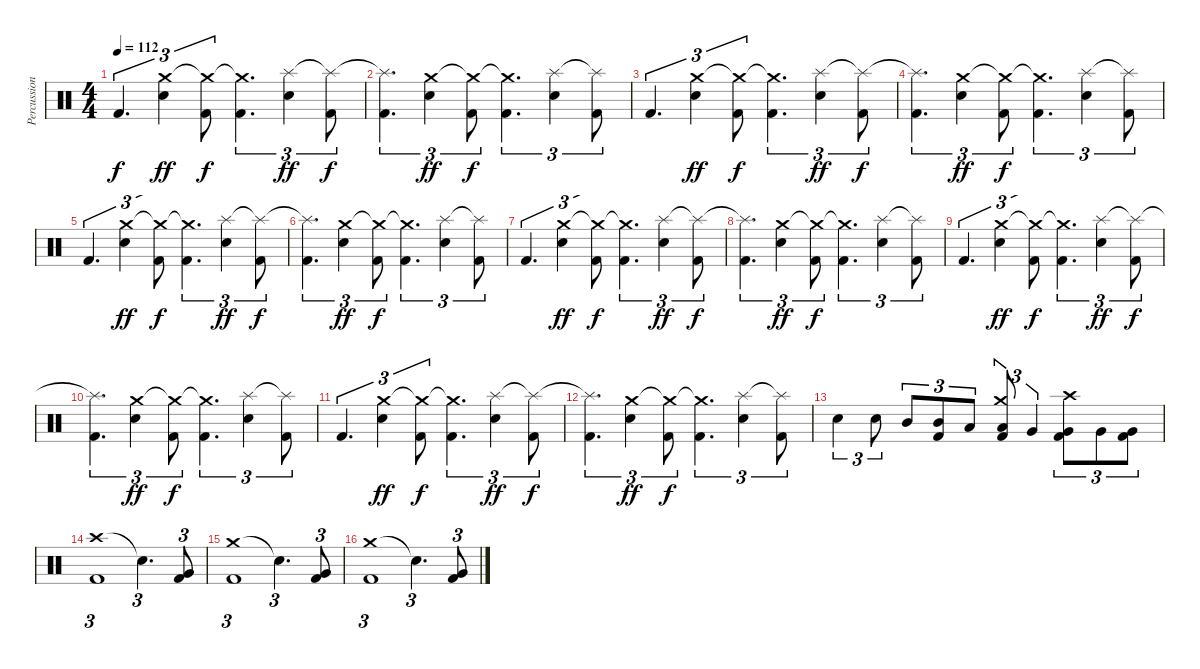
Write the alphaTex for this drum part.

\track ("Percussioni" "Percussion") {instrument percussion}
\staff {score}
\articulation defaults
\ts (4 4)
\tempo 112
\clef neutral
\ks c "Kick (hit) 2".4{d tu (3 2) dy f}
("Crash medium (hit)" "Snare (hit) 2").4{tu (3 2) dy ff} ("Crash medium (hit)"{t} "Kick (hit) 2").8{tu (3 2) dy f} ("Crash medium (hit)"{t} "Kick (hit) 2").4{d tu (3 2)} ("Splash (hit)" "Snare (hit) 2").4{tu (3 2) dy ff} ("Splash (hit)"{t} "Kick (hit) 2").8{tu (3 2) dy f} |
("Splash (hit)"{t} "Kick (hit) 2").4{d tu (3 2)} ("Crash medium (hit)" "Snare (hit) 2").4{tu (3 2) dy ff} ("Crash medium (hit)"{t} "Kick (hit) 2").8{tu (3 2) dy f} ("Crash medium (hit)"{t} "Kick (hit) 2").4{d tu (3 2)} ("Splash (hit)" "Snare (hit) 2").4{tu (3 2)} ("Splash (hit)"{t} "Kick (hit) 2").8{tu (3 2)} |
"Kick (hit) 2".4{d tu (3 2)} ("Crash medium (hit)" "Snare (hit) 2").4{tu (3 2) dy ff} ("Crash medium (hit)"{t} "Kick (hit) 2").8{tu (3 2) dy f} ("Crash medium (hit)"{t} "Kick (hit) 2").4{d tu (3 2)} ("Splash (hit)" "Snare (hit) 2").4{tu (3 2) dy ff} ("Splash (hit)"{t} "Kick (hit) 2").8{tu (3 2) dy f} |
("Splash (hit)"{t} "Kick (hit) 2").4{d tu (3 2)} ("Crash medium (hit)" "Snare (hit) 2").4{tu (3 2) dy ff} ("Crash medium (hit)"{t} "Kick (hit) 2").8{tu (3 2) dy f} ("Crash medium (hit)"{t} "Kick (hit) 2").4{d tu (3 2)} ("Splash (hit)" "Snare (hit) 2").4{tu (3 2)} ("Splash (hit)"{t} "Kick (hit) 2").8{tu (3 2)} |
"Kick (hit) 2".4{d tu (3 2)} ("Crash medium (hit)" "Snare (hit) 2").4{tu (3 2) dy ff} ("Crash medium (hit)"{t} "Kick (hit) 2").8{tu (3 2) dy f} ("Crash medium (hit)"{t} "Kick (hit) 2").4{d tu (3 2)} ("Splash (hit)" "Snare (hit) 2").4{tu (3 2) dy ff} ("Splash (hit)"{t} "Kick (hit) 2").8{tu (3 2) dy f} |
("Splash (hit)"{t} "Kick (hit) 2").4{d tu (3 2)} ("Crash medium (hit)" "Snare (hit) 2").4{tu (3 2) dy ff} ("Crash medium (hit)"{t} "Kick (hit) 2").8{tu (3 2) dy f} ("Crash medium (hit)"{t} "Kick (hit) 2").4{d tu (3 2)} ("Splash (hit)" "Snare (hit) 2").4{tu (3 2)} ("Splash (hit)"{t} "Kick (hit) 2").8{tu (3 2)} |
"Kick (hit) 2".4{d tu (3 2)} ("Crash medium (hit)" "Snare (hit) 2").4{tu (3 2) dy ff} ("Crash medium (hit)"{t} "Kick (hit) 2").8{tu (3 2) dy f} ("Crash medium (hit)"{t} "Kick (hit) 2").4{d tu (3 2)} ("Splash (hit)" "Snare (hit) 2").4{tu (3 2) dy ff} ("Splash (hit)"{t} "Kick (hit) 2").8{tu (3 2) dy f} |
("Splash (hit)"{t} "Kick (hit) 2").4{d tu (3 2)} ("Crash medium (hit)" "Snare (hit) 2").4{tu (3 2) dy ff} ("Crash medium (hit)"{t} "Kick (hit) 2").8{tu (3 2) dy f} ("Crash medium (hit)"{t} "Kick (hit) 2").4{d tu (3 2)} ("Splash (hit)" "Snare (hit) 2").4{tu (3 2)} ("Splash (hit)"{t} "Kick (hit) 2").8{tu (3 2)} |
"Kick (hit) 2".4{d tu (3 2)} ("Crash medium (hit)" "Snare (hit) 2").4{tu (3 2) dy ff} ("Crash medium (hit)"{t} "Kick (hit) 2").8{tu (3 2) dy f} ("Crash medium (hit)"{t} "Kick (hit) 2").4{d tu (3 2)} ("Splash (hit)" "Snare (hit) 2").4{tu (3 2) dy ff} ("Splash (hit)"{t} "Kick (hit) 2").8{tu (3 2) dy f} |
("Splash (hit)"{t} "Kick (hit) 2").4{d tu (3 2)} ("Crash medium (hit)" "Snare (hit) 2").4{tu (3 2) dy ff} ("Crash medium (hit)"{t} "Kick (hit) 2").8{tu (3 2) dy f} ("Crash medium (hit)"{t} "Kick (hit) 2").4{d tu (3 2)} ("Splash (hit)" "Snare (hit) 2").4{tu (3 2)} ("Splash (hit)"{t} "Kick (hit) 2").8{tu (3 2)} |
"Kick (hit) 2".4{d tu (3 2)} ("Crash medium (hit)" "Snare (hit) 2").4{tu (3 2) dy ff} ("Crash medium (hit)"{t} "Kick (hit) 2").8{tu (3 2) dy f} ("Crash medium (hit)"{t} "Kick (hit) 2").4{d tu (3 2)} ("Splash (hit)" "Snare (hit) 2").4{tu (3 2) dy ff} ("Splash (hit)"{t} "Kick (hit) 2").8{tu (3 2) dy f} |
("Splash (hit)"{t} "Kick (hit) 2").4{d tu (3 2)} ("Crash medium (hit)" "Snare (hit) 2").4{tu (3 2) dy ff} ("Crash medium (hit)"{t} "Kick (hit) 2").8{tu (3 2) dy f} ("Crash medium (hit)"{t} "Kick (hit) 2").4{d tu (3 2)} ("Splash (hit)" "Snare (hit) 2").4{tu (3 2)} ("Splash (hit)"{t} "Kick (hit) 2").8{tu (3 2)} |
"Snare (hit) 2".4{tu (3 2)} "Snare (hit) 2".8{tu (3 2)} "Mid Tom (hit)".8{tu (3 2)} ("Mid Tom (hit)" "Kick (hit) 2").8{tu (3 2)} "Low Tom (hit)".8{tu (3 2)} ("Crash medium (hit)" "Low Tom (hit)" "Kick (hit) 2").8{tu (3 2)} "Very Low Tom (hit)".4{tu (3 2)} ("Crash high (hit)" "Very Low Tom (hit)" "Kick (hit) 2").8{tu (3 2)} "Very Low Tom (hit)".8{tu (3 2)} ("Very Low Tom (hit)" "Kick (hit) 2").8{tu (3 2)} |
("Crash high (hit)" "Kick (hit) 2").1{tu (3 2)} "Snare (hit)"{t}.4{d tu (3 2)} ("Very Low Tom (hit)" "Kick (hit) 2").8{tu (3 2)} |
("Crash medium (hit)" "Kick (hit) 2").1{tu (3 2)} "Snare (hit)"{t}.4{d tu (3 2)} ("Very Low Tom (hit)" "Kick (hit) 2").8{tu (3 2)} |
("Crash medium (hit)" "Kick (hit) 2").1{tu (3 2)} "Snare (hit)"{t}.4{d tu (3 2)} ("Very Low Tom (hit)" "Kick (hit) 2").8{tu (3 2)}
